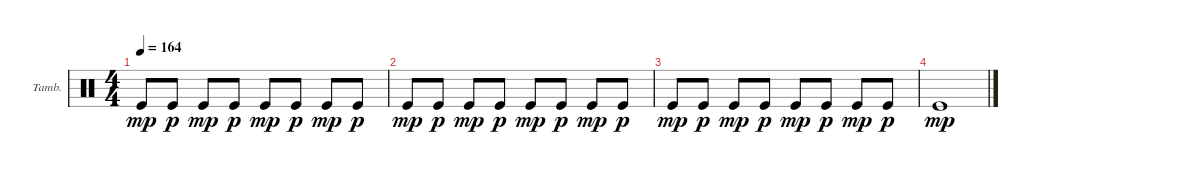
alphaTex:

\defaultSystemsLayout 4
\bracketExtendMode groupsimilarinstruments
\firstSystemTrackNameOrientation horizontal
\otherSystemsTrackNameOrientation horizontal
\track ("Tambourine" "Tamb.") {instrument percussion}
\staff {score}
\articulation defaults
\ts (4 4)
\tempo 164
\clef neutral
\ks c "Kick (hit)".8{dy mp} "Kick (hit)".8{dy p} "Kick (hit)".8{dy mp} "Kick (hit)".8{dy p} "Kick (hit)".8{dy mp} "Kick (hit)".8{dy p} "Kick (hit)".8{dy mp} "Kick (hit)".8{dy p}
|
"Kick (hit)".8{dy mp} "Kick (hit)".8{dy p} "Kick (hit)".8{dy mp} "Kick (hit)".8{dy p} "Kick (hit)".8{dy mp} "Kick (hit)".8{dy p} "Kick (hit)".8{dy mp} "Kick (hit)".8{dy p} |
"Kick (hit)".8{dy mp} "Kick (hit)".8{dy p} "Kick (hit)".8{dy mp} "Kick (hit)".8{dy p} "Kick (hit)".8{dy mp} "Kick (hit)".8{dy p} "Kick (hit)".8{dy mp} "Kick (hit)".8{dy p} |
"Kick (hit)".1{dy mp}
